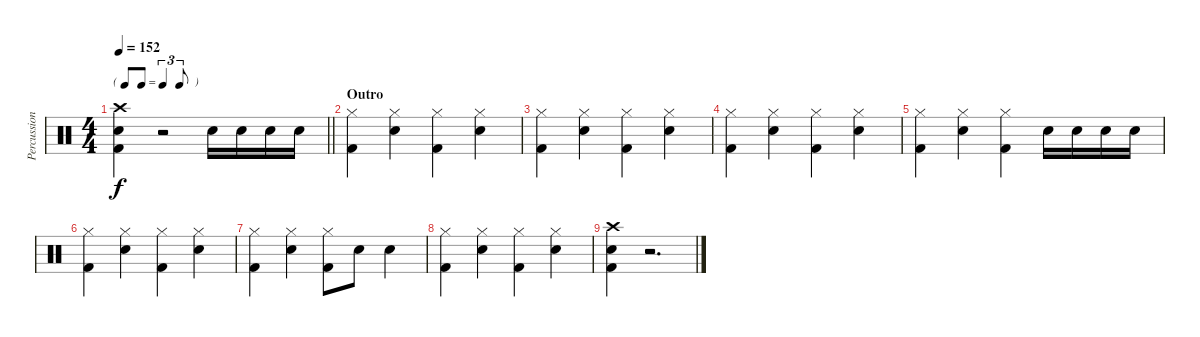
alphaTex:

\track ("Percussion" "Percussion") {instrument percussion}
\staff {score}
\articulation defaults
\ts (4 4)
\tf triplet8th
\tempo 152
\clef neutral
\barLineRight lightlight
\ks c
("Crash high (hit)" "Snare (hit) 2" "Kick (hit) 2").4{dy f} r.2 "Snare (hit) 2".16 "Snare (hit) 2".16 "Snare (hit) 2".16 "Snare (hit) 2".16 |
\section ("" "Outro")
("Hi-Hat (closed)" "Kick (hit) 2").4 ("Hi-Hat (closed)" "Snare (hit) 2").4 ("Hi-Hat (closed)" "Kick (hit) 2").4 ("Hi-Hat (closed)" "Snare (hit) 2").4 |
("Hi-Hat (closed)" "Kick (hit) 2").4 ("Hi-Hat (closed)" "Snare (hit) 2").4 ("Hi-Hat (closed)" "Kick (hit) 2").4 ("Hi-Hat (closed)" "Snare (hit) 2").4 |
("Hi-Hat (closed)" "Kick (hit) 2").4 ("Hi-Hat (closed)" "Snare (hit) 2").4 ("Hi-Hat (closed)" "Kick (hit) 2").4 ("Hi-Hat (closed)" "Snare (hit) 2").4 |
("Hi-Hat (closed)" "Kick (hit) 2").4 ("Hi-Hat (closed)" "Snare (hit) 2").4 ("Hi-Hat (closed)" "Kick (hit) 2").4 "Snare (hit) 2".16 "Snare (hit) 2".16 "Snare (hit) 2".16 "Snare (hit) 2".16 |
("Hi-Hat (closed)" "Kick (hit) 2").4 ("Hi-Hat (closed)" "Snare (hit) 2").4 ("Hi-Hat (closed)" "Kick (hit) 2").4 ("Hi-Hat (closed)" "Snare (hit) 2").4 |
("Hi-Hat (closed)" "Kick (hit) 2").4 ("Hi-Hat (closed)" "Snare (hit) 2").4 ("Hi-Hat (closed)" "Kick (hit) 2").8 "Snare (hit) 2".8 "Snare (hit) 2".4 |
("Hi-Hat (closed)" "Kick (hit) 2").4 ("Hi-Hat (closed)" "Snare (hit) 2").4 ("Hi-Hat (closed)" "Kick (hit) 2").4 ("Hi-Hat (closed)" "Snare (hit) 2").4 |
("Crash high (hit)" "Snare (hit) 2" "Kick (hit) 2").4 r.2{d}
